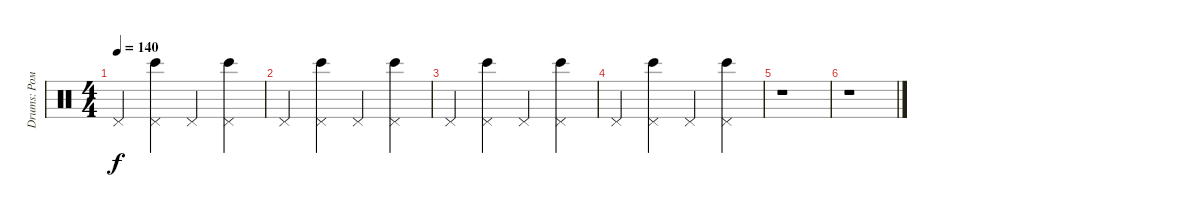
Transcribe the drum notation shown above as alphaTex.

\track ("Drums: Рома" "Drums: Ром") {instrument percussion}
\staff {score}
\articulation defaults
\ts (4 4)
\tempo 140
\clef neutral
\ks c "Pedal Hi-Hat (hit)".4{dy f}
("Pedal Hi-Hat (hit)" "Bongo High (hit)").4 "Pedal Hi-Hat (hit)".4 ("Pedal Hi-Hat (hit)" "Bongo High (hit)").4 |
"Pedal Hi-Hat (hit)".4 ("Pedal Hi-Hat (hit)" "Bongo High (hit)").4 "Pedal Hi-Hat (hit)".4 ("Pedal Hi-Hat (hit)" "Bongo High (hit)").4 |
"Pedal Hi-Hat (hit)".4 ("Pedal Hi-Hat (hit)" "Bongo High (hit)").4 "Pedal Hi-Hat (hit)".4 ("Pedal Hi-Hat (hit)" "Bongo High (hit)").4 |
"Pedal Hi-Hat (hit)".4 ("Pedal Hi-Hat (hit)" "Bongo High (hit)").4 "Pedal Hi-Hat (hit)".4 ("Pedal Hi-Hat (hit)" "Bongo High (hit)").4 |
r.1 |
r.1
